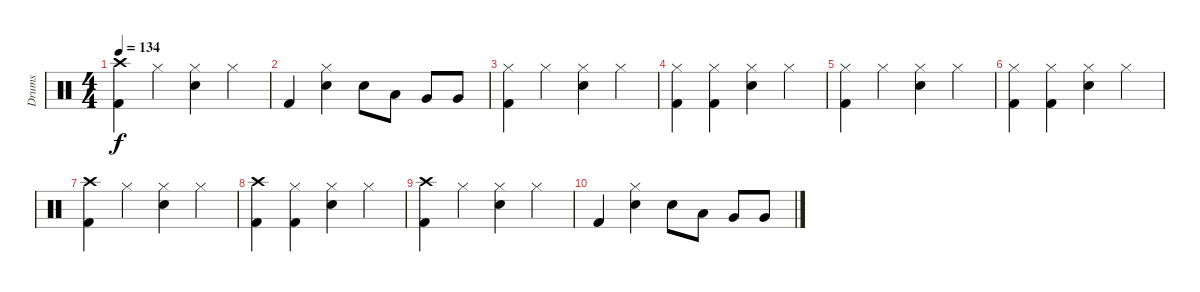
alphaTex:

\track ("Drums" "Drums") {instrument percussion}
\staff {score}
\articulation defaults
\ts (4 4)
\tempo 134
\clef neutral
\ks c
("Crash high (hit)" "Kick (hit) 2").4{dy f} "Hi-Hat (closed)".4 ("Hi-Hat (closed)" "Electric Snare (hit)").4 "Hi-Hat (closed)".4 |
"Kick (hit) 2".4 ("Hi-Hat (closed)" "Electric Snare (hit)").4 "Electric Snare (hit)".8 "Low Tom (hit)".8 "Very Low Tom (hit)".8 "Very Low Tom (hit)".8 |
("Hi-Hat (closed)" "Kick (hit) 2").4 "Hi-Hat (closed)".4 ("Hi-Hat (closed)" "Electric Snare (hit)").4 "Hi-Hat (closed)".4 |
("Hi-Hat (closed)" "Kick (hit) 2").4 ("Hi-Hat (closed)" "Kick (hit) 2").4 ("Hi-Hat (closed)" "Electric Snare (hit)").4 "Hi-Hat (closed)".4 |
("Hi-Hat (closed)" "Kick (hit) 2").4 "Hi-Hat (closed)".4 ("Hi-Hat (closed)" "Electric Snare (hit)").4 "Hi-Hat (closed)".4 |
("Hi-Hat (closed)" "Kick (hit) 2").4 ("Hi-Hat (closed)" "Kick (hit) 2").4 ("Hi-Hat (closed)" "Electric Snare (hit)").4 "Hi-Hat (closed)".4 |
("Crash high (hit)" "Kick (hit) 2").4 "Hi-Hat (closed)".4 ("Hi-Hat (closed)" "Electric Snare (hit)").4 "Hi-Hat (closed)".4 |
("Crash high (hit)" "Kick (hit) 2").4 ("Hi-Hat (closed)" "Kick (hit) 2").4 ("Hi-Hat (closed)" "Electric Snare (hit)").4 "Hi-Hat (closed)".4 |
("Crash high (hit)" "Kick (hit) 2").4 "Hi-Hat (closed)".4 ("Hi-Hat (closed)" "Electric Snare (hit)").4 "Hi-Hat (closed)".4 |
"Kick (hit) 2".4 ("Hi-Hat (closed)" "Electric Snare (hit)").4 "Electric Snare (hit)".8 "Low Tom (hit)".8 "Very Low Tom (hit)".8 "Very Low Tom (hit)".8
